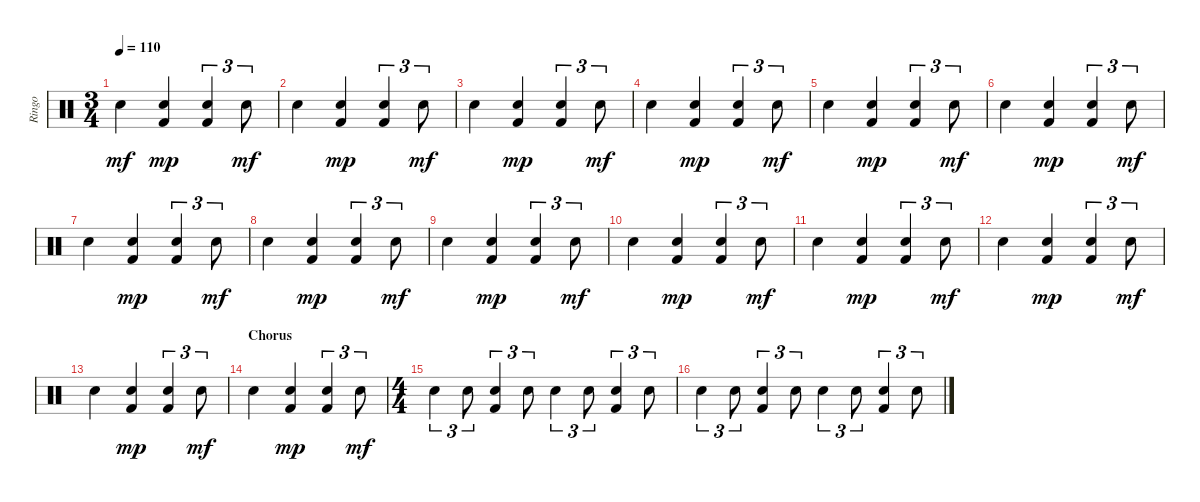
\track ("Ringo" "Ringo") {instrument percussion}
\staff {score}
\articulation defaults
\ts (3 4)
\tempo 110
\clef neutral
\ks c "Snare (hit) 2".4{dy mf}
("Snare (hit) 2" "Kick (hit) 2").4{dy mp} ("Snare (hit) 2" "Kick (hit) 2").4{tu (3 2)} "Snare (hit) 2".8{tu (3 2) dy mf} |
"Snare (hit) 2".4 ("Snare (hit) 2" "Kick (hit) 2").4{dy mp} ("Snare (hit) 2" "Kick (hit) 2").4{tu (3 2)} "Snare (hit) 2".8{tu (3 2) dy mf} |
"Snare (hit) 2".4 ("Snare (hit) 2" "Kick (hit) 2").4{dy mp} ("Snare (hit) 2" "Kick (hit) 2").4{tu (3 2)} "Snare (hit) 2".8{tu (3 2) dy mf} |
"Snare (hit) 2".4 ("Snare (hit) 2" "Kick (hit) 2").4{dy mp} ("Snare (hit) 2" "Kick (hit) 2").4{tu (3 2)} "Snare (hit) 2".8{tu (3 2) dy mf} |
"Snare (hit) 2".4 ("Snare (hit) 2" "Kick (hit) 2").4{dy mp} ("Snare (hit) 2" "Kick (hit) 2").4{tu (3 2)} "Snare (hit) 2".8{tu (3 2) dy mf} |
"Snare (hit) 2".4 ("Snare (hit) 2" "Kick (hit) 2").4{dy mp} ("Snare (hit) 2" "Kick (hit) 2").4{tu (3 2)} "Snare (hit) 2".8{tu (3 2) dy mf} |
"Snare (hit) 2".4 ("Snare (hit) 2" "Kick (hit) 2").4{dy mp} ("Snare (hit) 2" "Kick (hit) 2").4{tu (3 2)} "Snare (hit) 2".8{tu (3 2) dy mf} |
"Snare (hit) 2".4 ("Snare (hit) 2" "Kick (hit) 2").4{dy mp} ("Snare (hit) 2" "Kick (hit) 2").4{tu (3 2)} "Snare (hit) 2".8{tu (3 2) dy mf} |
"Snare (hit) 2".4 ("Snare (hit) 2" "Kick (hit) 2").4{dy mp} ("Snare (hit) 2" "Kick (hit) 2").4{tu (3 2)} "Snare (hit) 2".8{tu (3 2) dy mf} |
"Snare (hit) 2".4 ("Snare (hit) 2" "Kick (hit) 2").4{dy mp} ("Snare (hit) 2" "Kick (hit) 2").4{tu (3 2)} "Snare (hit) 2".8{tu (3 2) dy mf} |
"Snare (hit) 2".4 ("Snare (hit) 2" "Kick (hit) 2").4{dy mp} ("Snare (hit) 2" "Kick (hit) 2").4{tu (3 2)} "Snare (hit) 2".8{tu (3 2) dy mf} |
"Snare (hit) 2".4 ("Snare (hit) 2" "Kick (hit) 2").4{dy mp} ("Snare (hit) 2" "Kick (hit) 2").4{tu (3 2)} "Snare (hit) 2".8{tu (3 2) dy mf} |
"Snare (hit) 2".4 ("Snare (hit) 2" "Kick (hit) 2").4{dy mp} ("Snare (hit) 2" "Kick (hit) 2").4{tu (3 2)} "Snare (hit) 2".8{tu (3 2) dy mf} |
\section ("" "Chorus")
"Snare (hit) 2".4 ("Snare (hit) 2" "Kick (hit) 2").4{dy mp} ("Snare (hit) 2" "Kick (hit) 2").4{tu (3 2)} "Snare (hit) 2".8{tu (3 2) dy mf} |
\ts (4 4)
"Snare (hit) 2".4{tu (3 2)} "Snare (hit) 2".8{tu (3 2)} ("Snare (hit) 2" "Kick (hit) 2").4{tu (3 2)} "Snare (hit) 2".8{tu (3 2)} "Snare (hit) 2".4{tu (3 2)} "Snare (hit) 2".8{tu (3 2)} ("Snare (hit) 2" "Kick (hit) 2").4{tu (3 2)} "Snare (hit) 2".8{tu (3 2)} |
"Snare (hit) 2".4{tu (3 2)} "Snare (hit) 2".8{tu (3 2)} ("Snare (hit) 2" "Kick (hit) 2").4{tu (3 2)} "Snare (hit) 2".8{tu (3 2)} "Snare (hit) 2".4{tu (3 2)} "Snare (hit) 2".8{tu (3 2)} ("Snare (hit) 2" "Kick (hit) 2").4{tu (3 2)} "Snare (hit) 2".8{tu (3 2)}
